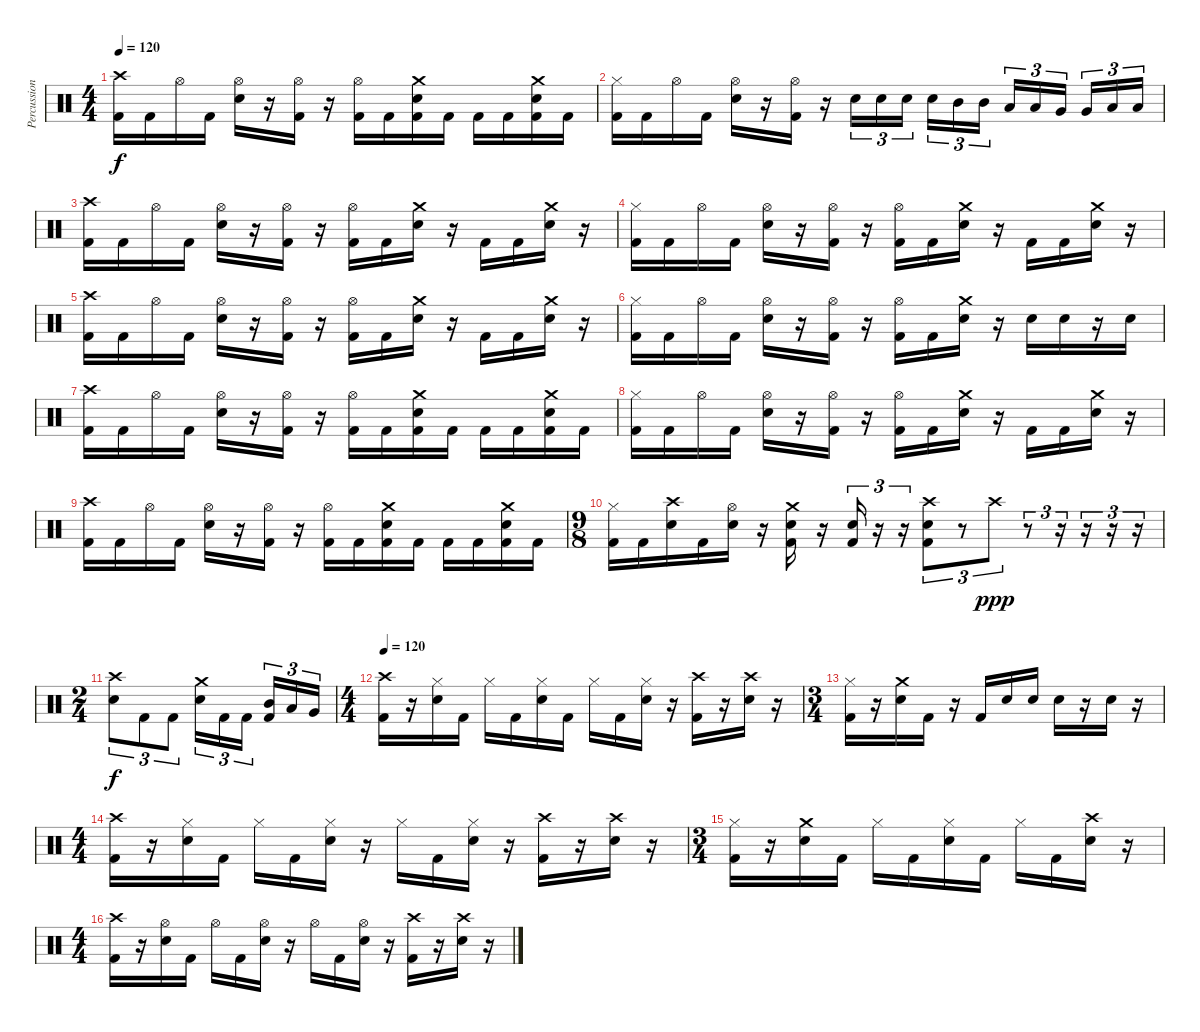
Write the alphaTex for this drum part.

\track ("Percussion" "Percussion") {instrument percussion}
\staff {score}
\articulation defaults
\ts (4 4)
\tempo 120
\clef neutral
\ks c
("Crash high (hit)" "Kick (hit) 2").16{dy f} "Kick (hit) 2".16 "Hi-Hat (open)".16 "Kick (hit) 2".16 ("Hi-Hat (open)" "Snare (hit) 2").16 r.16 ("Hi-Hat (open)" "Kick (hit) 2").16 r.16 ("Hi-Hat (open)" "Kick (hit) 2").16 "Kick (hit) 2".16 ("Crash medium (hit)" "Snare (hit) 2" "Kick (hit) 2").16 "Kick (hit) 2".16 "Kick (hit) 2".16 "Kick (hit) 2".16 ("Crash medium (hit)" "Snare (hit) 2" "Kick (hit) 2").16 "Kick (hit) 2".16 |
("Hi-Hat (closed)" "Kick (hit) 2").16 "Kick (hit) 2".16 "Hi-Hat (open)".16 "Kick (hit) 2".16 ("Hi-Hat (open)" "Snare (hit) 2").16 r.16 ("Hi-Hat (open)" "Kick (hit) 2").16 r.16 "Snare (hit) 2".16{tu (3 2)} "Snare (hit) 2".16{tu (3 2)} "Snare (hit) 2".16{tu (3 2) beam splitsecondary} "Snare (hit) 2".16{tu (3 2)} "Mid Tom (hit)".16{tu (3 2)} "Mid Tom (hit)".16{tu (3 2)} "Low Tom (hit)".16{tu (3 2)} "Low Tom (hit)".16{tu (3 2)} "Very Low Tom (hit)".16{tu (3 2) beam splitsecondary} "Very Low Tom (hit)".16{tu (3 2)} "Low Floor Tom (hit)".16{tu (3 2)} "Low Floor Tom (hit)".16{tu (3 2)} |
("Crash high (hit)" "Kick (hit) 2").16 "Kick (hit) 2".16 "Hi-Hat (open)".16 "Kick (hit) 2".16 ("Hi-Hat (open)" "Snare (hit) 2").16 r.16 ("Hi-Hat (open)" "Kick (hit) 2").16 r.16 ("Hi-Hat (open)" "Kick (hit) 2").16 "Kick (hit) 2".16 ("Crash medium (hit)" "Snare (hit) 2").16 r.16 "Kick (hit) 2".16 "Kick (hit) 2".16 ("Crash medium (hit)" "Snare (hit) 2").16 r.16 |
("Hi-Hat (closed)" "Kick (hit) 2").16 "Kick (hit) 2".16 "Hi-Hat (open)".16 "Kick (hit) 2".16 ("Hi-Hat (open)" "Snare (hit) 2").16 r.16 ("Hi-Hat (open)" "Kick (hit) 2").16 r.16 ("Hi-Hat (open)" "Kick (hit) 2").16 "Kick (hit) 2".16 ("Crash medium (hit)" "Snare (hit) 2").16 r.16 "Kick (hit) 2".16 "Kick (hit) 2".16 ("Crash medium (hit)" "Snare (hit) 2").16 r.16 |
("Crash high (hit)" "Kick (hit) 2").16 "Kick (hit) 2".16 "Hi-Hat (open)".16 "Kick (hit) 2".16 ("Hi-Hat (open)" "Snare (hit) 2").16 r.16 ("Hi-Hat (open)" "Kick (hit) 2").16 r.16 ("Hi-Hat (open)" "Kick (hit) 2").16 "Kick (hit) 2".16 ("Crash medium (hit)" "Snare (hit) 2").16 r.16 "Kick (hit) 2".16 "Kick (hit) 2".16 ("Crash medium (hit)" "Snare (hit) 2").16 r.16 |
("Hi-Hat (closed)" "Kick (hit) 2").16 "Kick (hit) 2".16 "Hi-Hat (open)".16 "Kick (hit) 2".16 ("Hi-Hat (open)" "Snare (hit) 2").16 r.16 ("Hi-Hat (open)" "Kick (hit) 2").16 r.16 ("Hi-Hat (open)" "Kick (hit) 2").16 "Kick (hit) 2".16 ("Crash medium (hit)" "Snare (hit) 2").16 r.16 "Snare (hit) 2".16 "Snare (hit) 2".16 r.16 "Snare (hit) 2".16 |
("Crash high (hit)" "Kick (hit) 2").16 "Kick (hit) 2".16 "Hi-Hat (open)".16 "Kick (hit) 2".16 ("Hi-Hat (open)" "Snare (hit) 2").16 r.16 ("Hi-Hat (open)" "Kick (hit) 2").16 r.16 ("Hi-Hat (open)" "Kick (hit) 2").16 "Kick (hit) 2".16 ("Crash medium (hit)" "Snare (hit) 2" "Kick (hit) 2").16 "Kick (hit) 2".16 "Kick (hit) 2".16 "Kick (hit) 2".16 ("Crash medium (hit)" "Snare (hit) 2" "Kick (hit) 2").16 "Kick (hit) 2".16 |
("Hi-Hat (closed)" "Kick (hit) 2").16 "Kick (hit) 2".16 "Hi-Hat (open)".16 "Kick (hit) 2".16 ("Hi-Hat (open)" "Snare (hit) 2").16 r.16 ("Hi-Hat (open)" "Kick (hit) 2").16 r.16 ("Hi-Hat (open)" "Kick (hit) 2").16 "Kick (hit) 2".16 ("Crash medium (hit)" "Snare (hit) 2").16 r.16 "Kick (hit) 2".16 "Kick (hit) 2".16 ("Crash medium (hit)" "Snare (hit) 2").16 r.16 |
("Crash high (hit)" "Kick (hit) 2").16 "Kick (hit) 2".16 "Hi-Hat (open)".16 "Kick (hit) 2".16 ("Hi-Hat (open)" "Snare (hit) 2").16 r.16 ("Hi-Hat (open)" "Kick (hit) 2").16 r.16 ("Hi-Hat (open)" "Kick (hit) 2").16 "Kick (hit) 2".16 ("Crash medium (hit)" "Snare (hit) 2" "Kick (hit) 2").16 "Kick (hit) 2".16 "Kick (hit) 2".16 "Kick (hit) 2".16 ("Crash medium (hit)" "Snare (hit) 2" "Kick (hit) 2").16 "Kick (hit) 2".16 |
\ts (9 8)
("Hi-Hat (closed)" "Kick (hit) 2").16 "Kick (hit) 2".16 ("Crash high (hit)" "Snare (hit) 2").16 "Kick (hit) 2".16 ("Hi-Hat (open)" "Snare (hit) 2").16 r.16 ("Crash medium (hit)" "Snare (hit) 2" "Kick (hit) 2").16 r.16 ("Snare (hit) 2" "Kick (hit) 2").16{tu (3 2)} r.16{tu (3 2)} r.16{tu (3 2)} ("Crash high (hit)" "Snare (hit) 2" "Kick (hit) 2").8{tu (3 2)} r.8{tu (3 2)} "Crash high (hit)".8{tu (3 2) dy ppp} r.8{tu (3 2)} r.16{tu (3 2)} r.16{tu (3 2)} r.16{tu (3 2)} r.16{tu (3 2)} |
\ts (2 4)
("Crash high (hit)" "Snare (hit) 2").8{tu (3 2) dy f} "Kick (hit) 2".8{tu (3 2)} "Kick (hit) 2".8{tu (3 2)} ("Crash medium (hit)" "Snare (hit) 2").16{tu (3 2)} "Kick (hit) 2".16{tu (3 2)} "Kick (hit) 2".16{tu (3 2) beam splitsecondary} ("Mid Tom (hit)" "Kick (hit) 2").16{tu (3 2)} "Low Tom (hit)".16{tu (3 2)} "Very Low Tom (hit)".16{tu (3 2)} |
\ts (4 4)
\tempo 120
("Crash high (hit)" "Kick (hit) 2").16 r.16 ("Hi-Hat (closed)" "Snare (hit) 2").16 "Kick (hit) 2".16 "Hi-Hat (closed)".16 "Kick (hit) 2".16 ("Hi-Hat (closed)" "Snare (hit) 2").16 "Kick (hit) 2".16 "Hi-Hat (closed)".16 "Kick (hit) 2".16 ("Hi-Hat (closed)" "Snare (hit) 2").16 r.16 ("Crash high (hit)" "Kick (hit) 2").16 r.16 ("Crash high (hit)" "Snare (hit) 2").16 r.16 |
\ts (3 4)
("Hi-Hat (closed)" "Kick (hit) 2").16 r.16 ("Crash medium (hit)" "Snare (hit) 2").16 "Kick (hit) 2".16 r.16 "Kick (hit) 2".16 "Snare (hit) 2".16 "Snare (hit) 2".16 "Snare (hit) 2".16 r.16 "Snare (hit) 2".16 r.16 |
\ts (4 4)
("Crash high (hit)" "Kick (hit) 2").16 r.16 ("Hi-Hat (closed)" "Snare (hit) 2").16 "Kick (hit) 2".16 "Hi-Hat (closed)".16 "Kick (hit) 2".16 ("Hi-Hat (closed)" "Snare (hit) 2").16 r.16 "Hi-Hat (closed)".16 "Kick (hit) 2".16 ("Hi-Hat (closed)" "Snare (hit) 2").16 r.16 ("Crash high (hit)" "Kick (hit) 2").16 r.16 ("Crash high (hit)" "Snare (hit) 2").16 r.16 |
\ts (3 4)
("Hi-Hat (closed)" "Kick (hit) 2").16 r.16 ("Crash medium (hit)" "Snare (hit) 2").16 "Kick (hit) 2".16 "Hi-Hat (closed)".16 "Kick (hit) 2".16 ("Hi-Hat (closed)" "Snare (hit) 2").16 "Kick (hit) 2".16 "Hi-Hat (closed)".16 "Kick (hit) 2".16 ("Crash high (hit)" "Snare (hit) 2").16 r.16 |
\ts (4 4)
("Crash high (hit)" "Kick (hit) 2").16 r.16 ("Hi-Hat (open)" "Snare (hit) 2").16 "Kick (hit) 2".16 "Hi-Hat (open)".16 "Kick (hit) 2".16 ("Hi-Hat (open)" "Snare (hit) 2").16 r.16 "Hi-Hat (open)".16 "Kick (hit) 2".16 ("Hi-Hat (open)" "Snare (hit) 2").16 r.16 ("Crash high (hit)" "Kick (hit) 2").16 r.16 ("Crash high (hit)" "Snare (hit) 2").16 r.16
